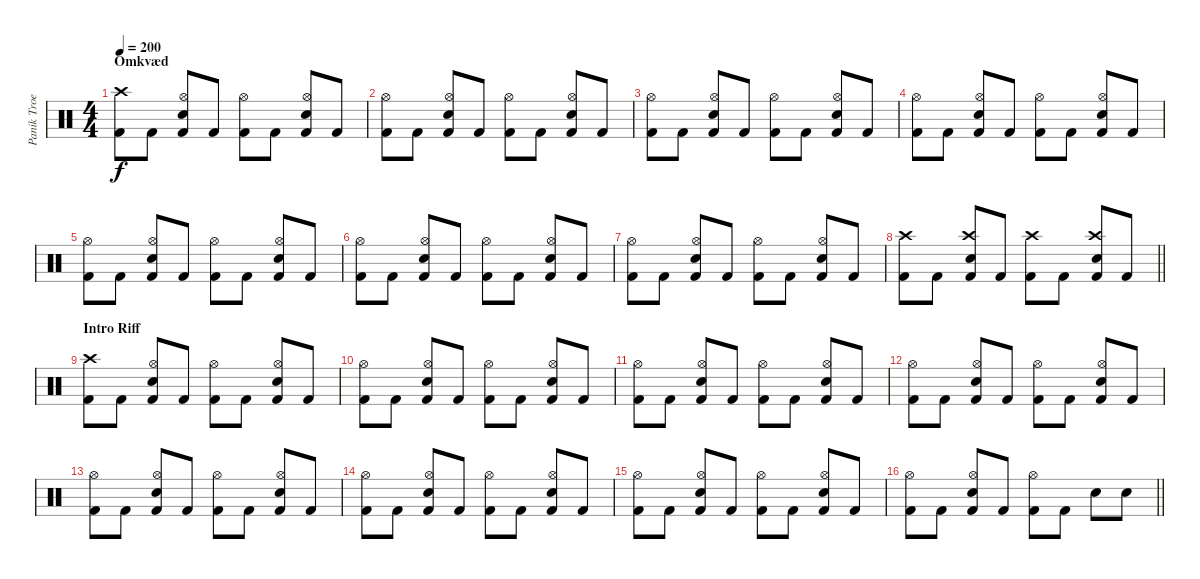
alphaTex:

\track ("Panik Troels ( Dengang )" "Panik Troe") {instrument percussion}
\staff {score}
\articulation defaults
\ts (4 4)
\section ("" "Omkvæd")
\tempo 200
\clef neutral
\ks c
("Kick (hit) 2" "Crash high (hit)").8{dy f} "Kick (hit) 2".8 ("Kick (hit) 2" "Hi-Hat (open)" "Snare (hit) 2").8 "Kick (hit) 2".8 ("Kick (hit) 2" "Hi-Hat (open)").8 "Kick (hit) 2".8 ("Kick (hit) 2" "Hi-Hat (open)" "Snare (hit) 2").8 "Kick (hit) 2".8 |
("Kick (hit) 2" "Hi-Hat (open)").8 "Kick (hit) 2".8 ("Kick (hit) 2" "Hi-Hat (open)" "Snare (hit) 2").8 "Kick (hit) 2".8 ("Kick (hit) 2" "Hi-Hat (open)").8 "Kick (hit) 2".8 ("Kick (hit) 2" "Hi-Hat (open)" "Snare (hit) 2").8 "Kick (hit) 2".8 |
("Kick (hit) 2" "Hi-Hat (open)").8 "Kick (hit) 2".8 ("Kick (hit) 2" "Hi-Hat (open)" "Snare (hit) 2").8 "Kick (hit) 2".8 ("Kick (hit) 2" "Hi-Hat (open)").8 "Kick (hit) 2".8 ("Kick (hit) 2" "Hi-Hat (open)" "Snare (hit) 2").8 "Kick (hit) 2".8 |
("Kick (hit) 2" "Hi-Hat (open)").8 "Kick (hit) 2".8 ("Kick (hit) 2" "Hi-Hat (open)" "Snare (hit) 2").8 "Kick (hit) 2".8 ("Kick (hit) 2" "Hi-Hat (open)").8 "Kick (hit) 2".8 ("Kick (hit) 2" "Hi-Hat (open)" "Snare (hit) 2").8 "Kick (hit) 2".8 |
("Kick (hit) 2" "Hi-Hat (open)").8 "Kick (hit) 2".8 ("Kick (hit) 2" "Hi-Hat (open)" "Snare (hit) 2").8 "Kick (hit) 2".8 ("Kick (hit) 2" "Hi-Hat (open)").8 "Kick (hit) 2".8 ("Kick (hit) 2" "Hi-Hat (open)" "Snare (hit) 2").8 "Kick (hit) 2".8 |
("Kick (hit) 2" "Hi-Hat (open)").8 "Kick (hit) 2".8 ("Kick (hit) 2" "Hi-Hat (open)" "Snare (hit) 2").8 "Kick (hit) 2".8 ("Kick (hit) 2" "Hi-Hat (open)").8 "Kick (hit) 2".8 ("Kick (hit) 2" "Hi-Hat (open)" "Snare (hit) 2").8 "Kick (hit) 2".8 |
("Kick (hit) 2" "Hi-Hat (open)").8 "Kick (hit) 2".8 ("Kick (hit) 2" "Hi-Hat (open)" "Snare (hit) 2").8 "Kick (hit) 2".8 ("Kick (hit) 2" "Hi-Hat (open)").8 "Kick (hit) 2".8 ("Kick (hit) 2" "Hi-Hat (open)" "Snare (hit) 2").8 "Kick (hit) 2".8 |
\barLineRight lightlight
("Kick (hit) 2" "Crash high (hit)").8 "Kick (hit) 2".8 ("Kick (hit) 2" "Crash high (hit)" "Snare (hit) 2").8 "Kick (hit) 2".8 ("Kick (hit) 2" "Crash high (hit)").8 "Kick (hit) 2".8 ("Kick (hit) 2" "Crash high (hit)" "Snare (hit) 2").8 "Kick (hit) 2".8 |
\section ("" "Intro Riff")
("Kick (hit) 2" "Crash high (hit)").8 "Kick (hit) 2".8 ("Kick (hit) 2" "Hi-Hat (open)" "Snare (hit) 2").8 "Kick (hit) 2".8 ("Kick (hit) 2" "Hi-Hat (open)").8 "Kick (hit) 2".8 ("Kick (hit) 2" "Hi-Hat (open)" "Snare (hit) 2").8 "Kick (hit) 2".8 |
("Kick (hit) 2" "Hi-Hat (open)").8 "Kick (hit) 2".8 ("Kick (hit) 2" "Hi-Hat (open)" "Snare (hit) 2").8 "Kick (hit) 2".8 ("Kick (hit) 2" "Hi-Hat (open)").8 "Kick (hit) 2".8 ("Kick (hit) 2" "Hi-Hat (open)" "Snare (hit) 2").8 "Kick (hit) 2".8 |
("Kick (hit) 2" "Hi-Hat (open)").8 "Kick (hit) 2".8 ("Kick (hit) 2" "Hi-Hat (open)" "Snare (hit) 2").8 "Kick (hit) 2".8 ("Kick (hit) 2" "Hi-Hat (open)").8 "Kick (hit) 2".8 ("Kick (hit) 2" "Hi-Hat (open)" "Snare (hit) 2").8 "Kick (hit) 2".8 |
("Kick (hit) 2" "Hi-Hat (open)").8 "Kick (hit) 2".8 ("Kick (hit) 2" "Hi-Hat (open)" "Snare (hit) 2").8 "Kick (hit) 2".8 ("Kick (hit) 2" "Hi-Hat (open)").8 "Kick (hit) 2".8 ("Kick (hit) 2" "Hi-Hat (open)" "Snare (hit) 2").8 "Kick (hit) 2".8 |
("Kick (hit) 2" "Hi-Hat (open)").8 "Kick (hit) 2".8 ("Kick (hit) 2" "Hi-Hat (open)" "Snare (hit) 2").8 "Kick (hit) 2".8 ("Kick (hit) 2" "Hi-Hat (open)").8 "Kick (hit) 2".8 ("Kick (hit) 2" "Hi-Hat (open)" "Snare (hit) 2").8 "Kick (hit) 2".8 |
("Kick (hit) 2" "Hi-Hat (open)").8 "Kick (hit) 2".8 ("Kick (hit) 2" "Hi-Hat (open)" "Snare (hit) 2").8 "Kick (hit) 2".8 ("Kick (hit) 2" "Hi-Hat (open)").8 "Kick (hit) 2".8 ("Kick (hit) 2" "Hi-Hat (open)" "Snare (hit) 2").8 "Kick (hit) 2".8 |
("Kick (hit) 2" "Hi-Hat (open)").8 "Kick (hit) 2".8 ("Kick (hit) 2" "Hi-Hat (open)" "Snare (hit) 2").8 "Kick (hit) 2".8 ("Kick (hit) 2" "Hi-Hat (open)").8 "Kick (hit) 2".8 ("Kick (hit) 2" "Hi-Hat (open)" "Snare (hit) 2").8 "Kick (hit) 2".8 |
\barLineRight lightlight
("Kick (hit) 2" "Hi-Hat (open)").8 "Kick (hit) 2".8 ("Kick (hit) 2" "Hi-Hat (open)" "Snare (hit) 2").8 "Kick (hit) 2".8 ("Kick (hit) 2" "Hi-Hat (open)").8 "Kick (hit) 2".8 "Snare (hit) 2".8 "Snare (hit) 2".8
